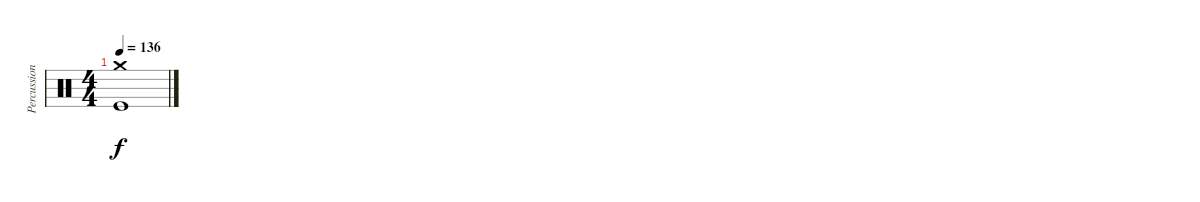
\track ("Percussion IV" "Percussion") {instrument percussion}
\staff {score}
\articulation defaults
\ts (4 4)
\tempo 136
\clef neutral
\ks c
("Crash medium (hit)" "Kick (hit)").1{dy f}
